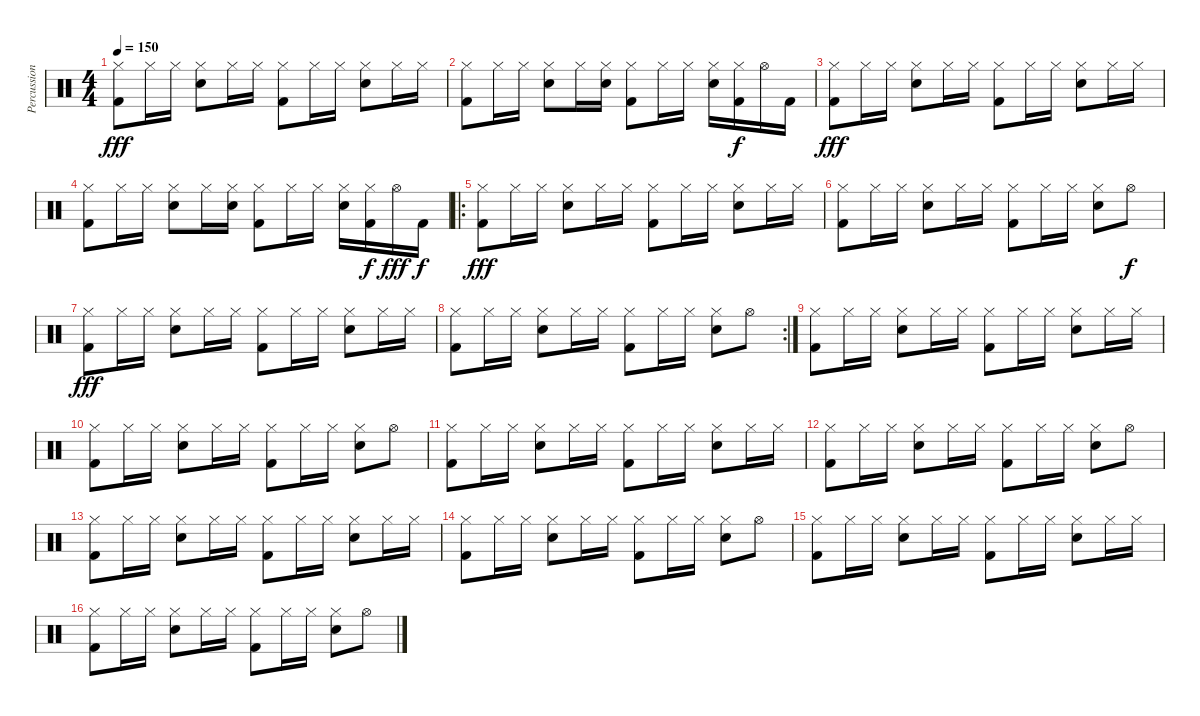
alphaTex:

\track ("Percussion" "Percussion") {instrument percussion}
\staff {score}
\articulation defaults
\ts (4 4)
\tempo 150
\clef neutral
\ks c
("Hi-Hat (closed)" "Kick (hit) 2").8{dy fff} "Hi-Hat (closed)".16 "Hi-Hat (closed)".16 ("Hi-Hat (closed)" "Snare (hit) 2").8 "Hi-Hat (closed)".16 "Hi-Hat (closed)".16 ("Hi-Hat (closed)" "Kick (hit) 2").8 "Hi-Hat (closed)".16 "Hi-Hat (closed)".16 ("Hi-Hat (closed)" "Snare (hit) 2").8 "Hi-Hat (closed)".16 "Hi-Hat (closed)".16 |
("Hi-Hat (closed)" "Kick (hit) 2").8 "Hi-Hat (closed)".16 "Hi-Hat (closed)".16 ("Hi-Hat (closed)" "Snare (hit) 2").8 "Hi-Hat (closed)".16 ("Hi-Hat (closed)" "Snare (hit) 2").16 ("Hi-Hat (closed)" "Kick (hit) 2").8 "Hi-Hat (closed)".16 "Hi-Hat (closed)".16 ("Hi-Hat (closed)" "Snare (hit) 2").16 ("Hi-Hat (closed)" "Kick (hit) 2").16{dy f} "Hi-Hat (open)".16 "Kick (hit) 2".16 |
("Hi-Hat (closed)" "Kick (hit) 2").8{dy fff} "Hi-Hat (closed)".16 "Hi-Hat (closed)".16 ("Hi-Hat (closed)" "Snare (hit) 2").8 "Hi-Hat (closed)".16 "Hi-Hat (closed)".16 ("Hi-Hat (closed)" "Kick (hit) 2").8 "Hi-Hat (closed)".16 "Hi-Hat (closed)".16 ("Hi-Hat (closed)" "Snare (hit) 2").8 "Hi-Hat (closed)".16 "Hi-Hat (closed)".16 |
("Hi-Hat (closed)" "Kick (hit) 2").8 "Hi-Hat (closed)".16 "Hi-Hat (closed)".16 ("Hi-Hat (closed)" "Snare (hit) 2").8 "Hi-Hat (closed)".16 ("Hi-Hat (closed)" "Snare (hit) 2").16 ("Hi-Hat (closed)" "Kick (hit) 2").8 "Hi-Hat (closed)".16 "Hi-Hat (closed)".16 ("Hi-Hat (closed)" "Snare (hit) 2").16 ("Hi-Hat (closed)" "Kick (hit) 2").16{dy f} "Hi-Hat (open)".16{dy fff} "Kick (hit) 2".16{dy f} |
\ro
("Hi-Hat (closed)" "Kick (hit) 2").8{dy fff} "Hi-Hat (closed)".16 "Hi-Hat (closed)".16 ("Hi-Hat (closed)" "Snare (hit) 2").8 "Hi-Hat (closed)".16 "Hi-Hat (closed)".16 ("Hi-Hat (closed)" "Kick (hit) 2").8 "Hi-Hat (closed)".16 "Hi-Hat (closed)".16 ("Hi-Hat (closed)" "Snare (hit) 2").8 "Hi-Hat (closed)".16 "Hi-Hat (closed)".16 |
("Hi-Hat (closed)" "Kick (hit) 2").8 "Hi-Hat (closed)".16 "Hi-Hat (closed)".16 ("Hi-Hat (closed)" "Snare (hit) 2").8 "Hi-Hat (closed)".16 "Hi-Hat (closed)".16 ("Hi-Hat (closed)" "Kick (hit) 2").8 "Hi-Hat (closed)".16 "Hi-Hat (closed)".16 ("Hi-Hat (closed)" "Snare (hit) 2").8 "Hi-Hat (open)".8{dy f} |
("Hi-Hat (closed)" "Kick (hit) 2").8{dy fff} "Hi-Hat (closed)".16 "Hi-Hat (closed)".16 ("Hi-Hat (closed)" "Snare (hit) 2").8 "Hi-Hat (closed)".16 "Hi-Hat (closed)".16 ("Hi-Hat (closed)" "Kick (hit) 2").8 "Hi-Hat (closed)".16 "Hi-Hat (closed)".16 ("Hi-Hat (closed)" "Snare (hit) 2").8 "Hi-Hat (closed)".16 "Hi-Hat (closed)".16 |
\rc 2
("Hi-Hat (closed)" "Kick (hit) 2").8 "Hi-Hat (closed)".16 "Hi-Hat (closed)".16 ("Hi-Hat (closed)" "Snare (hit) 2").8 "Hi-Hat (closed)".16 "Hi-Hat (closed)".16 ("Hi-Hat (closed)" "Kick (hit) 2").8 "Hi-Hat (closed)".16 "Hi-Hat (closed)".16 ("Hi-Hat (closed)" "Snare (hit) 2").8 "Hi-Hat (open)".8 |
\section ("" " ")
("Hi-Hat (closed)" "Kick (hit) 2").8 "Hi-Hat (closed)".16 "Hi-Hat (closed)".16 ("Hi-Hat (closed)" "Snare (hit) 2").8 "Hi-Hat (closed)".16 "Hi-Hat (closed)".16 ("Hi-Hat (closed)" "Kick (hit) 2").8 "Hi-Hat (closed)".16 "Hi-Hat (closed)".16 ("Hi-Hat (closed)" "Snare (hit) 2").8 "Hi-Hat (closed)".16 "Hi-Hat (closed)".16 |
("Hi-Hat (closed)" "Kick (hit) 2").8 "Hi-Hat (closed)".16 "Hi-Hat (closed)".16 ("Hi-Hat (closed)" "Snare (hit) 2").8 "Hi-Hat (closed)".16 "Hi-Hat (closed)".16 ("Hi-Hat (closed)" "Kick (hit) 2").8 "Hi-Hat (closed)".16 "Hi-Hat (closed)".16 ("Hi-Hat (closed)" "Snare (hit) 2").8 "Hi-Hat (open)".8 |
("Hi-Hat (closed)" "Kick (hit) 2").8 "Hi-Hat (closed)".16 "Hi-Hat (closed)".16 ("Hi-Hat (closed)" "Snare (hit) 2").8 "Hi-Hat (closed)".16 "Hi-Hat (closed)".16 ("Hi-Hat (closed)" "Kick (hit) 2").8 "Hi-Hat (closed)".16 "Hi-Hat (closed)".16 ("Hi-Hat (closed)" "Snare (hit) 2").8 "Hi-Hat (closed)".16 "Hi-Hat (closed)".16 |
("Hi-Hat (closed)" "Kick (hit) 2").8 "Hi-Hat (closed)".16 "Hi-Hat (closed)".16 ("Hi-Hat (closed)" "Snare (hit) 2").8 "Hi-Hat (closed)".16 "Hi-Hat (closed)".16 ("Hi-Hat (closed)" "Kick (hit) 2").8 "Hi-Hat (closed)".16 "Hi-Hat (closed)".16 ("Hi-Hat (closed)" "Snare (hit) 2").8 "Hi-Hat (open)".8 |
("Hi-Hat (closed)" "Kick (hit) 2").8 "Hi-Hat (closed)".16 "Hi-Hat (closed)".16 ("Hi-Hat (closed)" "Snare (hit) 2").8 "Hi-Hat (closed)".16 "Hi-Hat (closed)".16 ("Hi-Hat (closed)" "Kick (hit) 2").8 "Hi-Hat (closed)".16 "Hi-Hat (closed)".16 ("Hi-Hat (closed)" "Snare (hit) 2").8 "Hi-Hat (closed)".16 "Hi-Hat (closed)".16 |
("Hi-Hat (closed)" "Kick (hit) 2").8 "Hi-Hat (closed)".16 "Hi-Hat (closed)".16 ("Hi-Hat (closed)" "Snare (hit) 2").8 "Hi-Hat (closed)".16 "Hi-Hat (closed)".16 ("Hi-Hat (closed)" "Kick (hit) 2").8 "Hi-Hat (closed)".16 "Hi-Hat (closed)".16 ("Hi-Hat (closed)" "Snare (hit) 2").8 "Hi-Hat (open)".8 |
("Hi-Hat (closed)" "Kick (hit) 2").8 "Hi-Hat (closed)".16 "Hi-Hat (closed)".16 ("Hi-Hat (closed)" "Snare (hit) 2").8 "Hi-Hat (closed)".16 "Hi-Hat (closed)".16 ("Hi-Hat (closed)" "Kick (hit) 2").8 "Hi-Hat (closed)".16 "Hi-Hat (closed)".16 ("Hi-Hat (closed)" "Snare (hit) 2").8 "Hi-Hat (closed)".16 "Hi-Hat (closed)".16 |
("Hi-Hat (closed)" "Kick (hit) 2").8 "Hi-Hat (closed)".16 "Hi-Hat (closed)".16 ("Hi-Hat (closed)" "Snare (hit) 2").8 "Hi-Hat (closed)".16 "Hi-Hat (closed)".16 ("Hi-Hat (closed)" "Kick (hit) 2").8 "Hi-Hat (closed)".16 "Hi-Hat (closed)".16 ("Hi-Hat (closed)" "Snare (hit) 2").8 "Hi-Hat (open)".8
